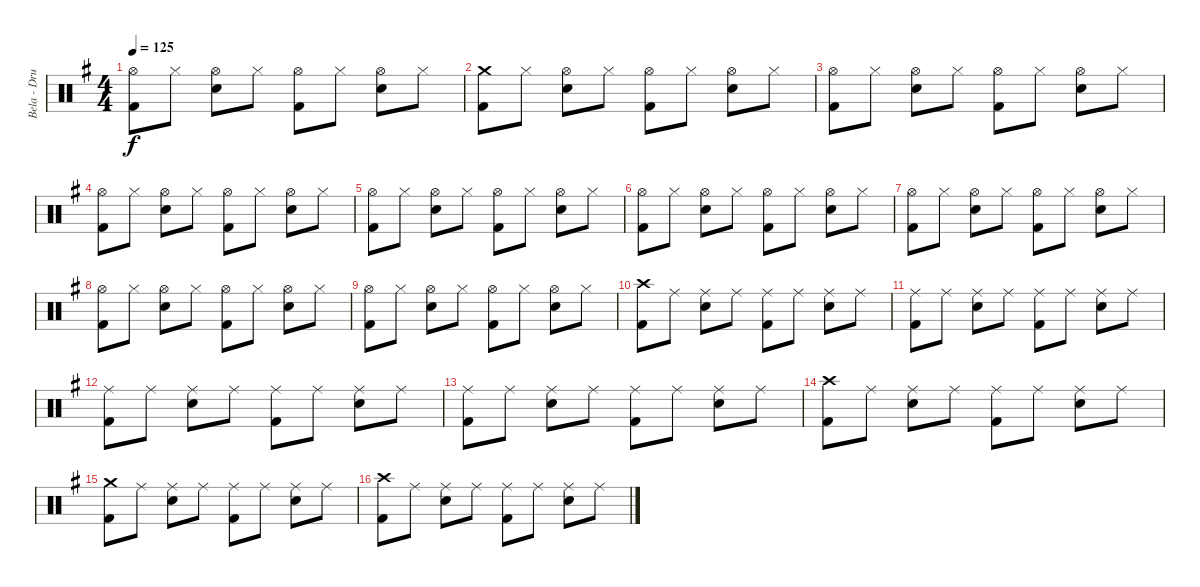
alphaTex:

\track ("Bela - Drums" "Bela - Dru") {instrument percussion}
\staff {score}
\articulation defaults
\ts (4 4)
\tempo 125
\clef neutral
\ks g
("Hi-Hat (open)" "Kick (hit) 2").8{dy f} "Hi-Hat (closed)".8 ("Hi-Hat (open)" "Snare (hit) 2").8 "Hi-Hat (closed)".8 ("Hi-Hat (open)" "Kick (hit) 2").8 "Hi-Hat (closed)".8 ("Hi-Hat (open)" "Snare (hit) 2").8 "Hi-Hat (closed)".8 |
("Crash medium (hit)" "Kick (hit) 2").8 "Hi-Hat (closed)".8 ("Hi-Hat (open)" "Snare (hit) 2").8 "Hi-Hat (closed)".8 ("Hi-Hat (open)" "Kick (hit) 2").8 "Hi-Hat (closed)".8 ("Hi-Hat (open)" "Snare (hit) 2").8 "Hi-Hat (closed)".8 |
("Hi-Hat (open)" "Kick (hit) 2").8 "Hi-Hat (closed)".8 ("Hi-Hat (open)" "Snare (hit) 2").8 "Hi-Hat (closed)".8 ("Hi-Hat (open)" "Kick (hit) 2").8 "Hi-Hat (closed)".8 ("Hi-Hat (open)" "Snare (hit) 2").8 "Hi-Hat (closed)".8 |
("Hi-Hat (open)" "Kick (hit) 2").8 "Hi-Hat (closed)".8 ("Hi-Hat (open)" "Snare (hit) 2").8 "Hi-Hat (closed)".8 ("Hi-Hat (open)" "Kick (hit) 2").8 "Hi-Hat (closed)".8 ("Hi-Hat (open)" "Snare (hit) 2").8 "Hi-Hat (closed)".8 |
("Hi-Hat (open)" "Kick (hit) 2").8 "Hi-Hat (closed)".8 ("Hi-Hat (open)" "Snare (hit) 2").8 "Hi-Hat (closed)".8 ("Hi-Hat (open)" "Kick (hit) 2").8 "Hi-Hat (closed)".8 ("Hi-Hat (open)" "Snare (hit) 2").8 "Hi-Hat (closed)".8 |
("Hi-Hat (open)" "Kick (hit) 2").8 "Hi-Hat (closed)".8 ("Hi-Hat (open)" "Snare (hit) 2").8 "Hi-Hat (closed)".8 ("Hi-Hat (open)" "Kick (hit) 2").8 "Hi-Hat (closed)".8 ("Hi-Hat (open)" "Snare (hit) 2").8 "Hi-Hat (closed)".8 |
("Hi-Hat (open)" "Kick (hit) 2").8 "Hi-Hat (closed)".8 ("Hi-Hat (open)" "Snare (hit) 2").8 "Hi-Hat (closed)".8 ("Hi-Hat (open)" "Kick (hit) 2").8 "Hi-Hat (closed)".8 ("Hi-Hat (open)" "Snare (hit) 2").8 "Hi-Hat (closed)".8 |
("Hi-Hat (open)" "Kick (hit) 2").8 "Hi-Hat (closed)".8 ("Hi-Hat (open)" "Snare (hit) 2").8 "Hi-Hat (closed)".8 ("Hi-Hat (open)" "Kick (hit) 2").8 "Hi-Hat (closed)".8 ("Hi-Hat (open)" "Snare (hit) 2").8 "Hi-Hat (closed)".8 |
("Hi-Hat (open)" "Kick (hit) 2").8 "Hi-Hat (closed)".8 ("Hi-Hat (open)" "Snare (hit) 2").8 "Hi-Hat (closed)".8 ("Hi-Hat (open)" "Kick (hit) 2").8 "Hi-Hat (closed)".8 ("Hi-Hat (open)" "Snare (hit) 2").8 "Hi-Hat (closed)".8 |
("Crash high (hit)" "Kick (hit) 2").8 "Ride (middle)".8 ("Ride (middle)" "Snare (hit) 2").8 "Ride (middle)".8 ("Ride (middle)" "Kick (hit) 2").8 "Ride (middle)".8 ("Ride (middle)" "Snare (hit) 2").8 "Ride (middle)".8 |
("Ride (middle)" "Kick (hit) 2").8 "Ride (middle)".8 ("Ride (middle)" "Snare (hit) 2").8 "Ride (middle)".8 ("Ride (middle)" "Kick (hit) 2").8 "Ride (middle)".8 ("Ride (middle)" "Snare (hit) 2").8 "Ride (middle)".8 |
("Ride (middle)" "Kick (hit) 2").8 "Ride (middle)".8 ("Ride (middle)" "Snare (hit) 2").8 "Ride (middle)".8 ("Ride (middle)" "Kick (hit) 2").8 "Ride (middle)".8 ("Ride (middle)" "Snare (hit) 2").8 "Ride (middle)".8 |
("Ride (middle)" "Kick (hit) 2").8 "Ride (middle)".8 ("Ride (middle)" "Snare (hit) 2").8 "Ride (middle)".8 ("Ride (middle)" "Kick (hit) 2").8 "Ride (middle)".8 ("Ride (middle)" "Snare (hit) 2").8 "Ride (middle)".8 |
("Crash high (hit)" "Kick (hit) 2").8 "Ride (middle)".8 ("Ride (middle)" "Snare (hit) 2").8 "Ride (middle)".8 ("Ride (middle)" "Kick (hit) 2").8 "Ride (middle)".8 ("Ride (middle)" "Snare (hit) 2").8 "Ride (middle)".8 |
("Crash medium (hit)" "Kick (hit) 2").8 "Ride (middle)".8 ("Ride (middle)" "Snare (hit) 2").8 "Ride (middle)".8 ("Ride (middle)" "Kick (hit) 2").8 "Ride (middle)".8 ("Ride (middle)" "Snare (hit) 2").8 "Ride (middle)".8 |
("Crash high (hit)" "Kick (hit) 2").8 "Ride (middle)".8 ("Ride (middle)" "Snare (hit) 2").8 "Ride (middle)".8 ("Ride (middle)" "Kick (hit) 2").8 "Ride (middle)".8 ("Ride (middle)" "Snare (hit) 2").8 "Ride (middle)".8
